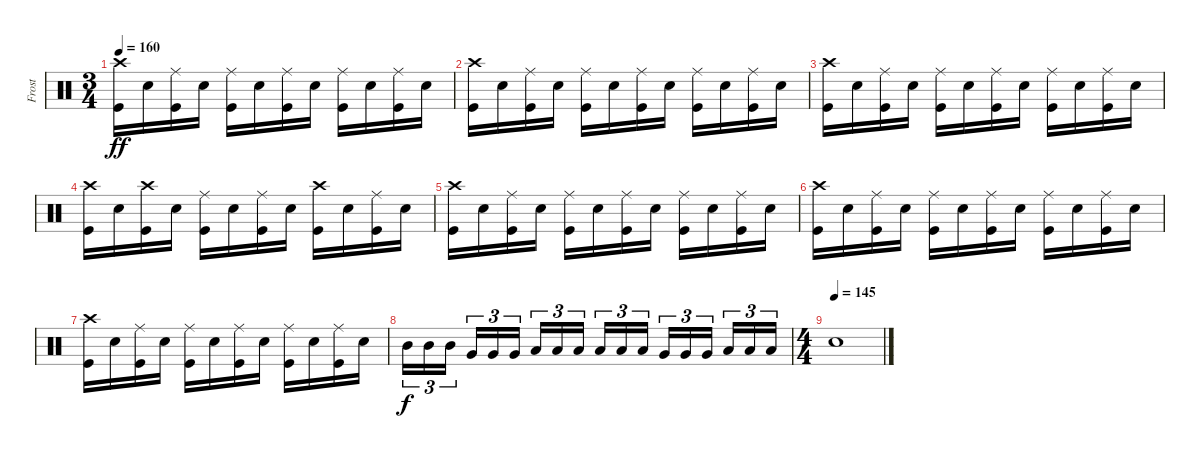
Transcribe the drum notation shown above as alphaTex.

\track ("Frost" "Frost") {instrument percussion}
\staff {score}
\articulation defaults
\ts (3 4)
\tempo 160
\clef neutral
\ks c
("Crash high (hit)" "Kick (hit)").16{dy ff} "Snare (hit) 2".16 ("Ride (middle)" "Kick (hit)").16 "Snare (hit) 2".16 ("Ride (middle)" "Kick (hit)").16 "Snare (hit) 2".16 ("Ride (middle)" "Kick (hit)").16 "Snare (hit) 2".16 ("Ride (middle)" "Kick (hit)").16 "Snare (hit) 2".16 ("Ride (middle)" "Kick (hit)").16 "Snare (hit) 2".16 |
("Crash high (hit)" "Kick (hit)").16 "Snare (hit) 2".16 ("Ride (middle)" "Kick (hit)").16 "Snare (hit) 2".16 ("Ride (middle)" "Kick (hit)").16 "Snare (hit) 2".16 ("Ride (middle)" "Kick (hit)").16 "Snare (hit) 2".16 ("Ride (middle)" "Kick (hit)").16 "Snare (hit) 2".16 ("Ride (middle)" "Kick (hit)").16 "Snare (hit) 2".16 |
("Crash high (hit)" "Kick (hit)").16 "Snare (hit) 2".16 ("Ride (middle)" "Kick (hit)").16 "Snare (hit) 2".16 ("Ride (middle)" "Kick (hit)").16 "Snare (hit) 2".16 ("Ride (middle)" "Kick (hit)").16 "Snare (hit) 2".16 ("Ride (middle)" "Kick (hit)").16 "Snare (hit) 2".16 ("Ride (middle)" "Kick (hit)").16 "Snare (hit) 2".16 |
("Crash high (hit)" "Kick (hit)").16 "Snare (hit) 2".16 ("Crash high (hit)" "Kick (hit)").16 "Snare (hit) 2".16 ("Ride (middle)" "Kick (hit)").16 "Snare (hit) 2".16 ("Ride (middle)" "Kick (hit)").16 "Snare (hit) 2".16 ("Crash high (hit)" "Kick (hit)").16 "Snare (hit) 2".16 ("Ride (middle)" "Kick (hit)").16 "Snare (hit) 2".16 |
("Crash high (hit)" "Kick (hit)").16 "Snare (hit) 2".16 ("Ride (middle)" "Kick (hit)").16 "Snare (hit) 2".16 ("Ride (middle)" "Kick (hit)").16 "Snare (hit) 2".16 ("Ride (middle)" "Kick (hit)").16 "Snare (hit) 2".16 ("Ride (middle)" "Kick (hit)").16 "Snare (hit) 2".16 ("Ride (middle)" "Kick (hit)").16 "Snare (hit) 2".16 |
("Crash high (hit)" "Kick (hit)").16 "Snare (hit) 2".16 ("Ride (middle)" "Kick (hit)").16 "Snare (hit) 2".16 ("Ride (middle)" "Kick (hit)").16 "Snare (hit) 2".16 ("Ride (middle)" "Kick (hit)").16 "Snare (hit) 2".16 ("Ride (middle)" "Kick (hit)").16 "Snare (hit) 2".16 ("Ride (middle)" "Kick (hit)").16 "Snare (hit) 2".16 |
("Crash high (hit)" "Kick (hit)").16 "Snare (hit) 2".16 ("Ride (middle)" "Kick (hit)").16 "Snare (hit) 2".16 ("Ride (middle)" "Kick (hit)").16 "Snare (hit) 2".16 ("Ride (middle)" "Kick (hit)").16 "Snare (hit) 2".16 ("Ride (middle)" "Kick (hit)").16 "Snare (hit) 2".16 ("Ride (middle)" "Kick (hit)").16 "Snare (hit) 2".16 |
"Mid Tom (hit)".16{tu (3 2) dy f} "Mid Tom (hit)".16{tu (3 2)} "Mid Tom (hit)".16{tu (3 2) beam splitsecondary} "Very Low Tom (hit)".16{tu (3 2)} "Very Low Tom (hit)".16{tu (3 2)} "Very Low Tom (hit)".16{tu (3 2)} "Low Tom (hit)".16{tu (3 2)} "Low Tom (hit)".16{tu (3 2)} "Low Tom (hit)".16{tu (3 2) beam splitsecondary} "Low Floor Tom (hit)".16{tu (3 2)} "Low Floor Tom (hit)".16{tu (3 2)} "Low Floor Tom (hit)".16{tu (3 2)} "Very Low Tom (hit)".16{tu (3 2)} "Very Low Tom (hit)".16{tu (3 2)} "Very Low Tom (hit)".16{tu (3 2) beam splitsecondary} "Low Floor Tom (hit)".16{tu (3 2)} "Low Floor Tom (hit)".16{tu (3 2)} "Low Floor Tom (hit)".16{tu (3 2)} |
\ts (4 4)
\tempo (145)
"Snare (hit) 2".1
